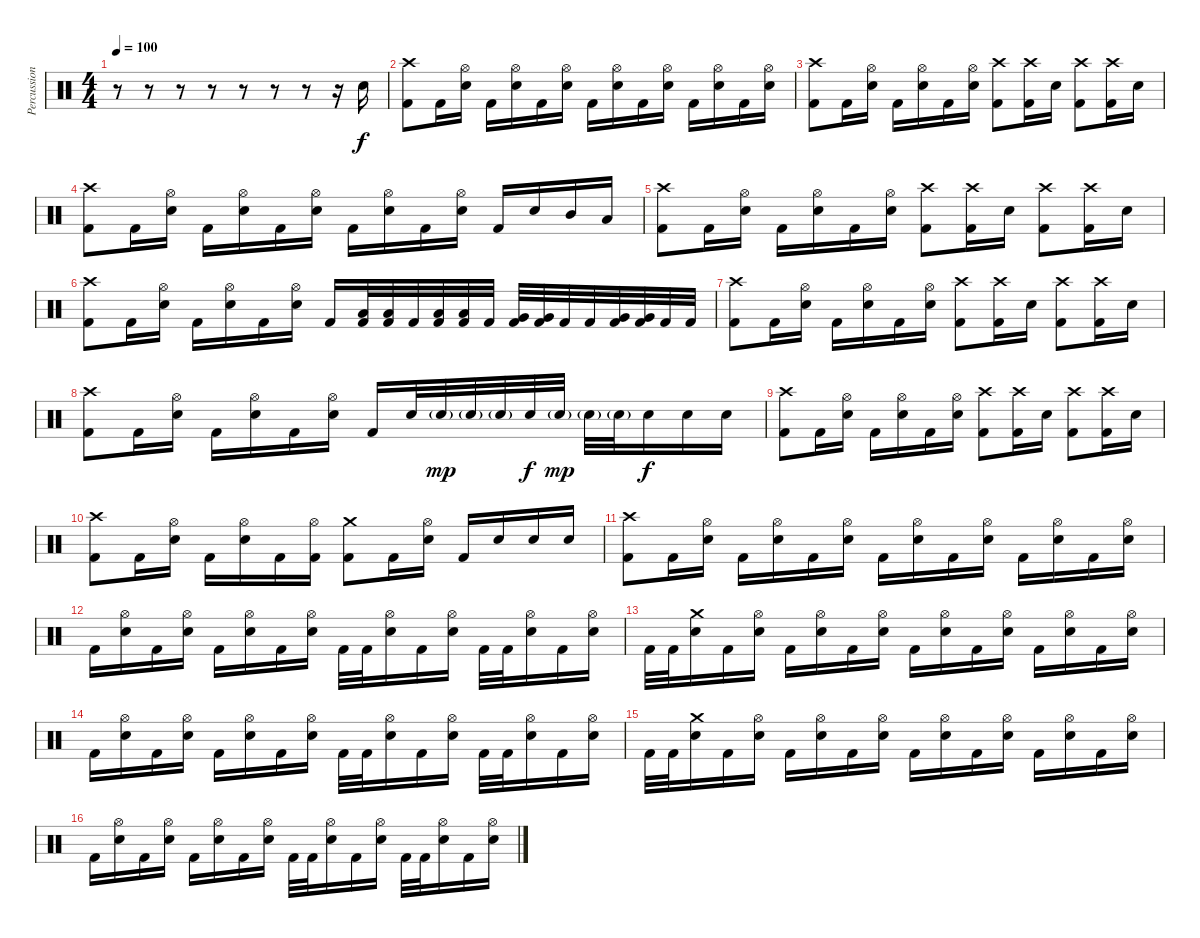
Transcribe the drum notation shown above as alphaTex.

\track ("Percussion" "Percussion") {instrument percussion}
\staff {score}
\articulation defaults
\ts (4 4)
\tempo 100
\tempo 120
\tempo 100
\clef neutral
\ks c
r.8{dy f} r.8 r.8 r.8 r.8 r.8 r.8 r.16 "Electric Snare (hit)".16 |
("Crash high (hit)" "Kick (hit) 2").8 "Kick (hit) 2".16 ("Hi-Hat (open)" "Electric Snare (hit)").16 "Kick (hit) 2".16 ("Hi-Hat (open)" "Electric Snare (hit)").16 "Kick (hit) 2".16 ("Hi-Hat (open)" "Electric Snare (hit)").16 "Kick (hit) 2".16 ("Hi-Hat (open)" "Electric Snare (hit)").16 "Kick (hit) 2".16 ("Hi-Hat (open)" "Electric Snare (hit)").16 "Kick (hit) 2".16 ("Hi-Hat (open)" "Electric Snare (hit)").16 "Kick (hit) 2".16 ("Hi-Hat (open)" "Electric Snare (hit)").16 |
("Crash high (hit)" "Kick (hit) 2").8 "Kick (hit) 2".16 ("Hi-Hat (open)" "Electric Snare (hit)").16 "Kick (hit) 2".16 ("Hi-Hat (open)" "Electric Snare (hit)").16 "Kick (hit) 2".16 ("Hi-Hat (open)" "Electric Snare (hit)").16 ("Crash high (hit)" "Kick (hit) 2").8 ("Crash high (hit)" "Kick (hit) 2").16 "Electric Snare (hit)".16 ("Crash high (hit)" "Kick (hit) 2").8 ("Crash high (hit)" "Kick (hit) 2").16 "Electric Snare (hit)".16 |
("Crash high (hit)" "Kick (hit) 2").8 "Kick (hit) 2".16 ("Hi-Hat (open)" "Electric Snare (hit)").16 "Kick (hit) 2".16 ("Hi-Hat (open)" "Electric Snare (hit)").16 "Kick (hit) 2".16 ("Hi-Hat (open)" "Electric Snare (hit)").16 "Kick (hit) 2".16 ("Hi-Hat (open)" "Electric Snare (hit)").16 "Kick (hit) 2".16 ("Hi-Hat (open)" "Electric Snare (hit)").16 "Kick (hit) 2".16 "Electric Snare (hit)".16 "Mid Tom (hit)".16 "Low Tom (hit)".16 |
("Crash high (hit)" "Kick (hit) 2").8 "Kick (hit) 2".16 ("Hi-Hat (open)" "Electric Snare (hit)").16 "Kick (hit) 2".16 ("Hi-Hat (open)" "Electric Snare (hit)").16 "Kick (hit) 2".16 ("Hi-Hat (open)" "Electric Snare (hit)").16 ("Crash high (hit)" "Kick (hit) 2").8 ("Crash high (hit)" "Kick (hit) 2").16 "Electric Snare (hit)".16 ("Crash high (hit)" "Kick (hit) 2").8 ("Crash high (hit)" "Kick (hit) 2").16 "Electric Snare (hit)".16 |
("Crash high (hit)" "Kick (hit) 2").8 "Kick (hit) 2".16 ("Hi-Hat (open)" "Electric Snare (hit)").16 "Kick (hit) 2".16 ("Hi-Hat (open)" "Electric Snare (hit)").16 "Kick (hit) 2".16 ("Hi-Hat (open)" "Electric Snare (hit)").16 "Kick (hit) 2".16 ("Low Tom (hit)" "Kick (hit) 2").32 ("Low Tom (hit)" "Kick (hit) 2").32 "Kick (hit) 2".32 ("Low Tom (hit)" "Kick (hit) 2").32 ("Low Tom (hit)" "Kick (hit) 2").32 "Kick (hit) 2".32 ("Very Low Tom (hit)" "Kick (hit) 2").32 ("Very Low Tom (hit)" "Kick (hit) 2").32 "Kick (hit) 2".32 "Kick (hit) 2".32 ("Very Low Tom (hit)" "Kick (hit) 2").32 ("Very Low Tom (hit)" "Kick (hit) 2").32 "Kick (hit) 2".32 "Kick (hit) 2".32 |
("Crash high (hit)" "Kick (hit) 2").8 "Kick (hit) 2".16 ("Hi-Hat (open)" "Electric Snare (hit)").16 "Kick (hit) 2".16 ("Hi-Hat (open)" "Electric Snare (hit)").16 "Kick (hit) 2".16 ("Hi-Hat (open)" "Electric Snare (hit)").16 ("Crash high (hit)" "Kick (hit) 2").8 ("Crash high (hit)" "Kick (hit) 2").16 "Electric Snare (hit)".16 ("Crash high (hit)" "Kick (hit) 2").8 ("Crash high (hit)" "Kick (hit) 2").16 "Electric Snare (hit)".16 |
("Crash high (hit)" "Kick (hit) 2").8 "Kick (hit) 2".16 ("Hi-Hat (open)" "Electric Snare (hit)").16 "Kick (hit) 2".16 ("Hi-Hat (open)" "Electric Snare (hit)").16 "Kick (hit) 2".16 ("Hi-Hat (open)" "Electric Snare (hit)").16 "Kick (hit) 2".16 "Electric Snare (hit)".32 "Electric Snare (hit)"{g}.32{dy mp} "Electric Snare (hit)"{g}.32 "Electric Snare (hit)"{g}.32 "Electric Snare (hit)".32{dy f} "Electric Snare (hit)"{g}.32{dy mp} "Electric Snare (hit)"{g}.32 "Electric Snare (hit)"{g}.32 "Electric Snare (hit)".16{dy f} "Electric Snare (hit)".16 "Electric Snare (hit)".16 |
("Crash high (hit)" "Kick (hit) 2").8 "Kick (hit) 2".16 ("Hi-Hat (open)" "Electric Snare (hit)").16 "Kick (hit) 2".16 ("Hi-Hat (open)" "Electric Snare (hit)").16 "Kick (hit) 2".16 ("Hi-Hat (open)" "Electric Snare (hit)").16 ("Crash high (hit)" "Kick (hit) 2").8 ("Crash high (hit)" "Kick (hit) 2").16 "Electric Snare (hit)".16 ("Crash high (hit)" "Kick (hit) 2").8 ("Crash high (hit)" "Kick (hit) 2").16 "Electric Snare (hit)".16 |
("Crash high (hit)" "Kick (hit) 2").8 "Kick (hit) 2".16 ("Hi-Hat (open)" "Electric Snare (hit)").16 "Kick (hit) 2".16 ("Hi-Hat (open)" "Electric Snare (hit)").16 "Kick (hit) 2".16 ("Hi-Hat (open)" "Kick (hit) 2").16 ("Crash medium (hit)" "Kick (hit) 2").8 "Kick (hit) 2".16 ("Hi-Hat (open)" "Electric Snare (hit)").16 "Kick (hit) 2".16 "Electric Snare (hit)".16 "Electric Snare (hit)".16 "Electric Snare (hit)".16 |
("Crash high (hit)" "Kick (hit) 2").8 "Kick (hit) 2".16 ("Hi-Hat (open)" "Electric Snare (hit)").16 "Kick (hit) 2".16 ("Hi-Hat (open)" "Electric Snare (hit)").16 "Kick (hit) 2".16 ("Hi-Hat (open)" "Electric Snare (hit)").16 "Kick (hit) 2".16 ("Hi-Hat (open)" "Electric Snare (hit)").16 "Kick (hit) 2".16 ("Hi-Hat (open)" "Electric Snare (hit)").16 "Kick (hit) 2".16 ("Hi-Hat (open)" "Electric Snare (hit)").16 "Kick (hit) 2".16 ("Hi-Hat (open)" "Electric Snare (hit)").16 |
"Kick (hit) 2".16 ("Hi-Hat (open)" "Electric Snare (hit)").16 "Kick (hit) 2".16 ("Hi-Hat (open)" "Electric Snare (hit)").16 "Kick (hit) 2".16 ("Hi-Hat (open)" "Electric Snare (hit)").16 "Kick (hit) 2".16 ("Hi-Hat (open)" "Electric Snare (hit)").16 "Kick (hit) 2".32 "Kick (hit) 2".32 ("Hi-Hat (open)" "Electric Snare (hit)").16 "Kick (hit) 2".16 ("Hi-Hat (open)" "Electric Snare (hit)").16 "Kick (hit) 2".32 "Kick (hit) 2".32 ("Hi-Hat (open)" "Electric Snare (hit)").16 "Kick (hit) 2".16 ("Hi-Hat (open)" "Electric Snare (hit)").16 |
"Kick (hit) 2".32 "Kick (hit) 2".32 ("Crash medium (hit)" "Electric Snare (hit)").16 "Kick (hit) 2".16 ("Hi-Hat (open)" "Electric Snare (hit)").16 "Kick (hit) 2".16 ("Hi-Hat (open)" "Electric Snare (hit)").16 "Kick (hit) 2".16 ("Hi-Hat (open)" "Electric Snare (hit)").16 "Kick (hit) 2".16 ("Hi-Hat (open)" "Electric Snare (hit)").16 "Kick (hit) 2".16 ("Hi-Hat (open)" "Electric Snare (hit)").16 "Kick (hit) 2".16 ("Hi-Hat (open)" "Electric Snare (hit)").16 "Kick (hit) 2".16 ("Hi-Hat (open)" "Electric Snare (hit)").16 |
"Kick (hit) 2".16 ("Hi-Hat (open)" "Electric Snare (hit)").16 "Kick (hit) 2".16 ("Hi-Hat (open)" "Electric Snare (hit)").16 "Kick (hit) 2".16 ("Hi-Hat (open)" "Electric Snare (hit)").16 "Kick (hit) 2".16 ("Hi-Hat (open)" "Electric Snare (hit)").16 "Kick (hit) 2".32 "Kick (hit) 2".32 ("Hi-Hat (open)" "Electric Snare (hit)").16 "Kick (hit) 2".16 ("Hi-Hat (open)" "Electric Snare (hit)").16 "Kick (hit) 2".32 "Kick (hit) 2".32 ("Hi-Hat (open)" "Electric Snare (hit)").16 "Kick (hit) 2".16 ("Hi-Hat (open)" "Electric Snare (hit)").16 |
"Kick (hit) 2".32 "Kick (hit) 2".32 ("Crash medium (hit)" "Electric Snare (hit)").16 "Kick (hit) 2".16 ("Hi-Hat (open)" "Electric Snare (hit)").16 "Kick (hit) 2".16 ("Hi-Hat (open)" "Electric Snare (hit)").16 "Kick (hit) 2".16 ("Hi-Hat (open)" "Electric Snare (hit)").16 "Kick (hit) 2".16 ("Hi-Hat (open)" "Electric Snare (hit)").16 "Kick (hit) 2".16 ("Hi-Hat (open)" "Electric Snare (hit)").16 "Kick (hit) 2".16 ("Hi-Hat (open)" "Electric Snare (hit)").16 "Kick (hit) 2".16 ("Hi-Hat (open)" "Electric Snare (hit)").16 |
"Kick (hit) 2".16 ("Hi-Hat (open)" "Electric Snare (hit)").16 "Kick (hit) 2".16 ("Hi-Hat (open)" "Electric Snare (hit)").16 "Kick (hit) 2".16 ("Hi-Hat (open)" "Electric Snare (hit)").16 "Kick (hit) 2".16 ("Hi-Hat (open)" "Electric Snare (hit)").16 "Kick (hit) 2".32 "Kick (hit) 2".32 ("Hi-Hat (open)" "Electric Snare (hit)").16 "Kick (hit) 2".16 ("Hi-Hat (open)" "Electric Snare (hit)").16 "Kick (hit) 2".32 "Kick (hit) 2".32 ("Hi-Hat (open)" "Electric Snare (hit)").16 "Kick (hit) 2".16 ("Hi-Hat (open)" "Electric Snare (hit)").16
